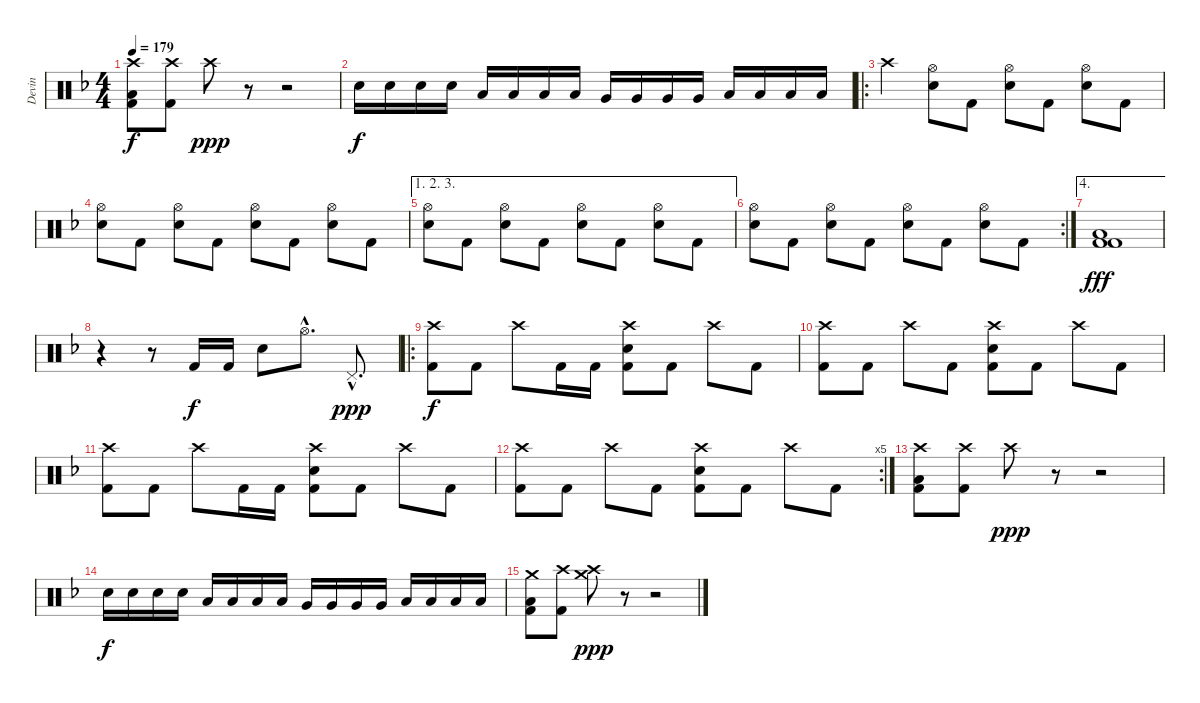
\track ("Devin" "Devin") {instrument percussion}
\staff {score}
\articulation defaults
\ts (4 4)
\tempo 179
\clef neutral
\ks f
("Crash high (hit)" "Low Floor Tom (hit)" "Kick (hit) 2").8{dy f} ("Crash high (hit)" "Kick (hit) 2").8 "Crash high (hit)".8{dy ppp} r.8 r.2 |
"Electric Snare (hit)".16{dy f} "Electric Snare (hit)".16 "Electric Snare (hit)".16 "Electric Snare (hit)".16 "Low Tom (hit)".16 "Low Tom (hit)".16 "Low Tom (hit)".16 "Low Tom (hit)".16 "Very Low Tom (hit)".16 "Very Low Tom (hit)".16 "Very Low Tom (hit)".16 "Very Low Tom (hit)".16 "Low Floor Tom (hit)".16 "Low Floor Tom (hit)".16 "Low Floor Tom (hit)".16 "Low Floor Tom (hit)".16 |
\ro "Crash high (hit)".4
("Hi-Hat (open)" "Electric Snare (hit)").8 "Kick (hit) 2".8 ("Hi-Hat (open)" "Electric Snare (hit)").8 "Kick (hit) 2".8 ("Hi-Hat (open)" "Electric Snare (hit)").8 "Kick (hit) 2".8 |
("Hi-Hat (open)" "Electric Snare (hit)").8 "Kick (hit) 2".8 ("Hi-Hat (open)" "Electric Snare (hit)").8 "Kick (hit) 2".8 ("Hi-Hat (open)" "Electric Snare (hit)").8 "Kick (hit) 2".8 ("Hi-Hat (open)" "Electric Snare (hit)").8 "Kick (hit) 2".8 |
\ae (1 2 3)
("Hi-Hat (open)" "Electric Snare (hit)").8 "Kick (hit) 2".8 ("Hi-Hat (open)" "Electric Snare (hit)").8 "Kick (hit) 2".8 ("Hi-Hat (open)" "Electric Snare (hit)").8 "Kick (hit) 2".8 ("Hi-Hat (open)" "Electric Snare (hit)").8 "Kick (hit) 2".8 |
\rc 2
("Hi-Hat (open)" "Electric Snare (hit)").8 "Kick (hit) 2".8 ("Hi-Hat (open)" "Electric Snare (hit)").8 "Kick (hit) 2".8 ("Hi-Hat (open)" "Electric Snare (hit)").8 "Kick (hit) 2".8 ("Hi-Hat (open)" "Electric Snare (hit)").8 "Kick (hit) 2".8 |
\ae 4
("Low Floor Tom (hit)" "Kick (hit) 2" "Kick (hit) 2").1{bd 120 dy fff} |
r.4 r.8 "Kick (hit) 2".16{dy f} "Kick (hit) 2".16 "Electric Snare (hit)".8 "Hi-Hat (open)"{hac}.8{d} "Pedal Hi-Hat (hit)"{hac}.8{d dy ppp} |
\ro
("Crash high (hit)" "Kick (hit) 2").8{dy f} "Kick (hit) 2".8 "Crash high (hit)".8 "Kick (hit) 2".16 "Kick (hit) 2".16 ("Crash high (hit)" "Electric Snare (hit)" "Kick (hit) 2").8 "Kick (hit) 2".8 "Crash high (hit)".8 "Kick (hit) 2".8 |
("Crash high (hit)" "Kick (hit) 2").8 "Kick (hit) 2".8 "Crash high (hit)".8 "Kick (hit) 2".8 ("Crash high (hit)" "Electric Snare (hit)" "Kick (hit) 2").8 "Kick (hit) 2".8 "Crash high (hit)".8 "Kick (hit) 2".8 |
("Crash high (hit)" "Kick (hit) 2").8 "Kick (hit) 2".8 "Crash high (hit)".8 "Kick (hit) 2".16 "Kick (hit) 2".16 ("Crash high (hit)" "Electric Snare (hit)" "Kick (hit) 2").8 "Kick (hit) 2".8 "Crash high (hit)".8 "Kick (hit) 2".8 |
\rc 5
("Crash high (hit)" "Kick (hit) 2").8 "Kick (hit) 2".8 "Crash high (hit)".8 "Kick (hit) 2".8 ("Crash high (hit)" "Electric Snare (hit)" "Kick (hit) 2").8 "Kick (hit) 2".8 "Crash high (hit)".8 "Kick (hit) 2".8 |
("Crash high (hit)" "Low Floor Tom (hit)" "Kick (hit) 2").8 ("Crash high (hit)" "Kick (hit) 2").8 "Crash high (hit)".8{dy ppp} r.8 r.2 |
"Electric Snare (hit)".16{dy f} "Electric Snare (hit)".16 "Electric Snare (hit)".16 "Electric Snare (hit)".16 "Low Tom (hit)".16 "Low Tom (hit)".16 "Low Tom (hit)".16 "Low Tom (hit)".16 "Very Low Tom (hit)".16 "Very Low Tom (hit)".16 "Very Low Tom (hit)".16 "Very Low Tom (hit)".16 "Low Floor Tom (hit)".16 "Low Floor Tom (hit)".16 "Low Floor Tom (hit)".16 "Low Floor Tom (hit)".16 |
("Crash medium (hit)" "Low Floor Tom (hit)" "Kick (hit) 2").8 ("Crash high (hit)" "Kick (hit) 2").8 ("Crash high (hit)" "Crash medium (hit)").8{dy ppp} r.8 r.2
